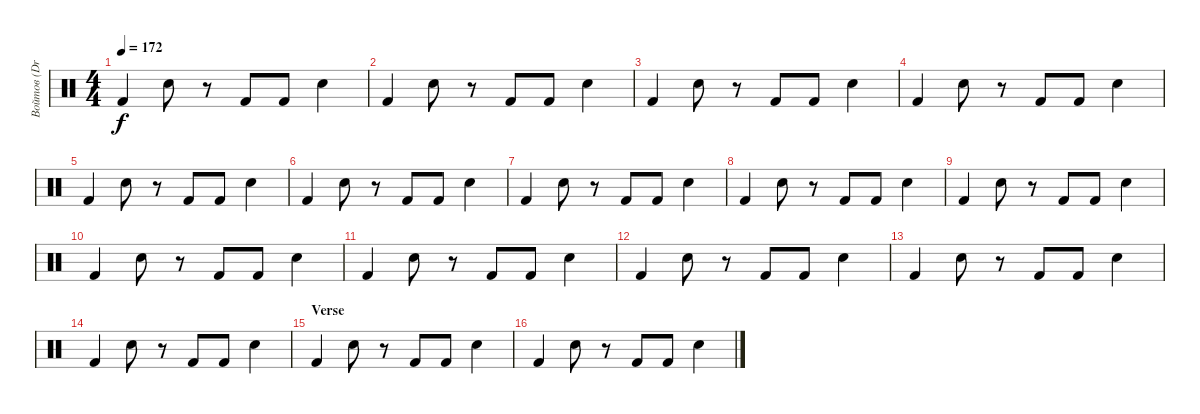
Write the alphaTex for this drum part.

\track ("Войтов (Drums)" "Войтов (Dr") {instrument percussion}
\staff {score}
\articulation defaults
\ts (4 4)
\tempo 172
\clef neutral
\ks c "Kick (hit) 2".4{dy f} "Electric Snare (hit)".8
r.8 "Kick (hit) 2".8 "Kick (hit) 2".8 "Electric Snare (hit)".4 |
"Kick (hit) 2".4 "Electric Snare (hit)".8 r.8 "Kick (hit) 2".8 "Kick (hit) 2".8 "Electric Snare (hit)".4 |
"Kick (hit) 2".4 "Electric Snare (hit)".8 r.8 "Kick (hit) 2".8 "Kick (hit) 2".8 "Electric Snare (hit)".4 |
"Kick (hit) 2".4 "Electric Snare (hit)".8 r.8 "Kick (hit) 2".8 "Kick (hit) 2".8 "Electric Snare (hit)".4 |
"Kick (hit) 2".4 "Electric Snare (hit)".8 r.8 "Kick (hit) 2".8 "Kick (hit) 2".8 "Electric Snare (hit)".4 |
"Kick (hit) 2".4 "Electric Snare (hit)".8 r.8 "Kick (hit) 2".8 "Kick (hit) 2".8 "Electric Snare (hit)".4 |
"Kick (hit) 2".4 "Electric Snare (hit)".8 r.8 "Kick (hit) 2".8 "Kick (hit) 2".8 "Electric Snare (hit)".4 |
"Kick (hit) 2".4 "Electric Snare (hit)".8 r.8 "Kick (hit) 2".8 "Kick (hit) 2".8 "Electric Snare (hit)".4 |
"Kick (hit) 2".4 "Electric Snare (hit)".8 r.8 "Kick (hit) 2".8 "Kick (hit) 2".8 "Electric Snare (hit)".4 |
"Kick (hit) 2".4 "Electric Snare (hit)".8 r.8 "Kick (hit) 2".8 "Kick (hit) 2".8 "Electric Snare (hit)".4 |
"Kick (hit) 2".4 "Electric Snare (hit)".8 r.8 "Kick (hit) 2".8 "Kick (hit) 2".8 "Electric Snare (hit)".4 |
"Kick (hit) 2".4 "Electric Snare (hit)".8 r.8 "Kick (hit) 2".8 "Kick (hit) 2".8 "Electric Snare (hit)".4 |
"Kick (hit) 2".4 "Electric Snare (hit)".8 r.8 "Kick (hit) 2".8 "Kick (hit) 2".8 "Electric Snare (hit)".4 |
"Kick (hit) 2".4 "Electric Snare (hit)".8 r.8 "Kick (hit) 2".8 "Kick (hit) 2".8 "Electric Snare (hit)".4 |
\section ("" "Verse")
"Kick (hit) 2".4 "Electric Snare (hit)".8 r.8 "Kick (hit) 2".8 "Kick (hit) 2".8 "Electric Snare (hit)".4 |
"Kick (hit) 2".4 "Electric Snare (hit)".8 r.8 "Kick (hit) 2".8 "Kick (hit) 2".8 "Electric Snare (hit)".4
